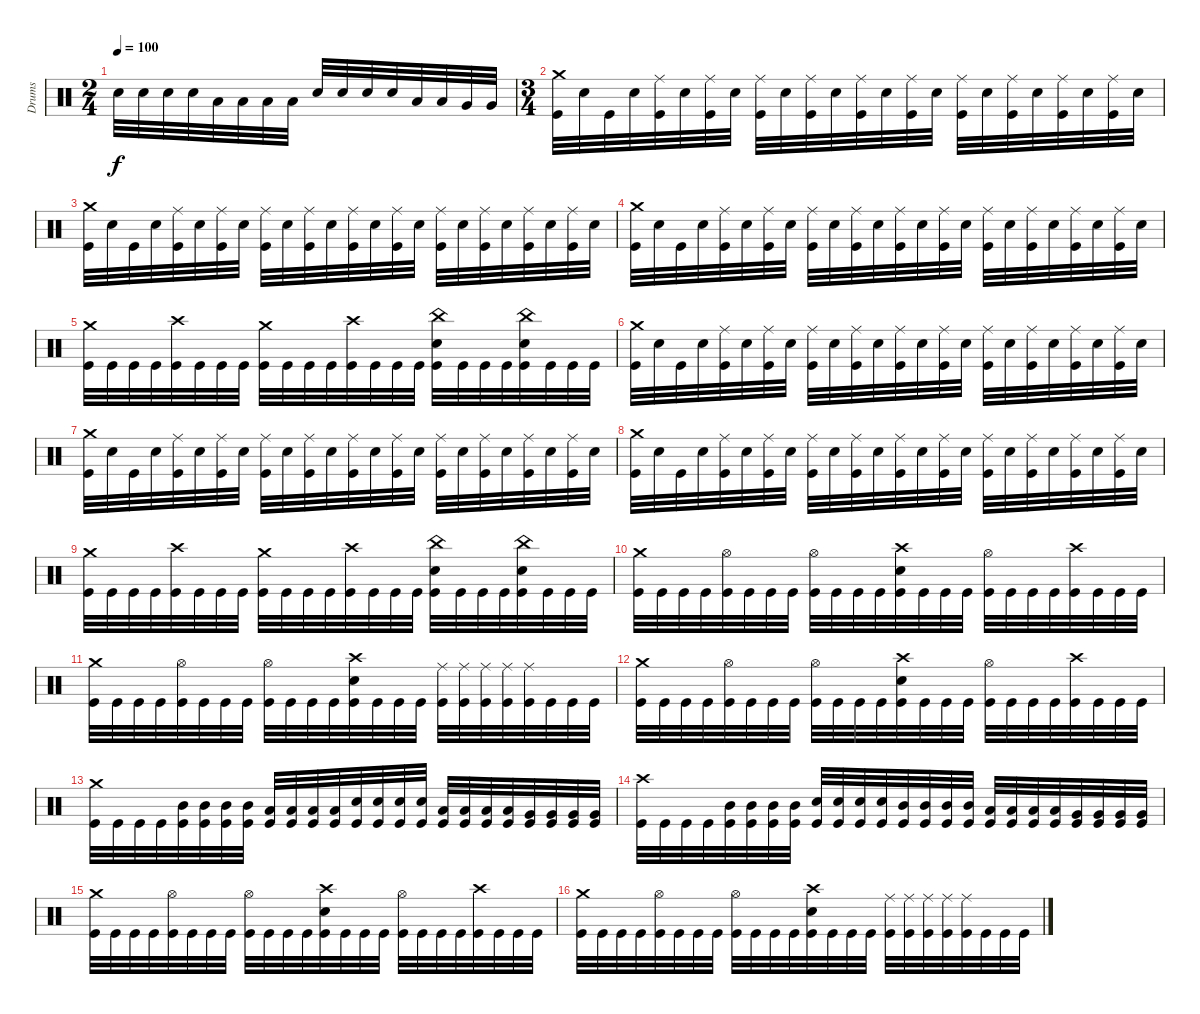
\track ("Drums" "Drums") {instrument percussion}
\staff {score}
\articulation defaults
\ts (2 4)
\tempo 100
\clef neutral
\ks c "Snare (hit) 2".32{dy f} "Snare (hit) 2".32 "Snare (hit) 2".32 "Snare (hit) 2".32 "Low Tom (hit)".32 "Low Tom (hit)".32 "Low Tom (hit)".32 "Low Tom (hit)".32 "Snare (hit) 2".32 "Snare (hit) 2".32 "Snare (hit) 2".32 "Snare (hit) 2".32 "Low Tom (hit)".32 "Low Tom (hit)".32 "Very Low Tom (hit)".32 "Very Low Tom (hit)".32
|
\ts (3 4)
("Crash medium (hit)" "Kick (hit)").32 "Snare (hit) 2".32 "Kick (hit)".32 "Snare (hit) 2".32 ("Ride (middle)" "Kick (hit)").32 "Snare (hit) 2".32 ("Ride (middle)" "Kick (hit)").32 "Snare (hit) 2".32 ("Ride (middle)" "Kick (hit)").32 "Snare (hit) 2".32 ("Ride (middle)" "Kick (hit)").32 "Snare (hit) 2".32 ("Ride (middle)" "Kick (hit)").32 "Snare (hit) 2".32 ("Ride (middle)" "Kick (hit)").32 "Snare (hit) 2".32 ("Ride (middle)" "Kick (hit)").32 "Snare (hit) 2".32 ("Ride (middle)" "Kick (hit)").32 "Snare (hit) 2".32 ("Ride (middle)" "Kick (hit)").32 "Snare (hit) 2".32 ("Ride (middle)" "Kick (hit)").32 "Snare (hit) 2".32 |
("Crash medium (hit)" "Kick (hit)").32 "Snare (hit) 2".32 "Kick (hit)".32 "Snare (hit) 2".32 ("Ride (middle)" "Kick (hit)").32 "Snare (hit) 2".32 ("Ride (middle)" "Kick (hit)").32 "Snare (hit) 2".32 ("Ride (middle)" "Kick (hit)").32 "Snare (hit) 2".32 ("Ride (middle)" "Kick (hit)").32 "Snare (hit) 2".32 ("Ride (middle)" "Kick (hit)").32 "Snare (hit) 2".32 ("Ride (middle)" "Kick (hit)").32 "Snare (hit) 2".32 ("Ride (middle)" "Kick (hit)").32 "Snare (hit) 2".32 ("Ride (middle)" "Kick (hit)").32 "Snare (hit) 2".32 ("Ride (middle)" "Kick (hit)").32 "Snare (hit) 2".32 ("Ride (middle)" "Kick (hit)").32 "Snare (hit) 2".32 |
("Crash medium (hit)" "Kick (hit)").32 "Snare (hit) 2".32 "Kick (hit)".32 "Snare (hit) 2".32 ("Ride (middle)" "Kick (hit)").32 "Snare (hit) 2".32 ("Ride (middle)" "Kick (hit)").32 "Snare (hit) 2".32 ("Ride (middle)" "Kick (hit)").32 "Snare (hit) 2".32 ("Ride (middle)" "Kick (hit)").32 "Snare (hit) 2".32 ("Ride (middle)" "Kick (hit)").32 "Snare (hit) 2".32 ("Ride (middle)" "Kick (hit)").32 "Snare (hit) 2".32 ("Ride (middle)" "Kick (hit)").32 "Snare (hit) 2".32 ("Ride (middle)" "Kick (hit)").32 "Snare (hit) 2".32 ("Ride (middle)" "Kick (hit)").32 "Snare (hit) 2".32 ("Ride (middle)" "Kick (hit)").32 "Snare (hit) 2".32 |
("Crash medium (hit)" "Kick (hit)").32 "Kick (hit)".32 "Kick (hit)".32 "Kick (hit)".32 ("Crash high (hit)" "Kick (hit)").32 "Kick (hit)".32 "Kick (hit)".32 "Kick (hit)".32 ("Crash medium (hit)" "Kick (hit)").32 "Kick (hit)".32 "Kick (hit)".32 "Kick (hit)".32 ("Crash high (hit)" "Kick (hit)").32 "Kick (hit)".32 "Kick (hit)".32 "Kick (hit)".32 ("China (hit)" "Snare (hit) 2" "Kick (hit)").32 "Kick (hit)".32 "Kick (hit)".32 "Kick (hit)".32 ("China (hit)" "Snare (hit) 2" "Kick (hit)").32 "Kick (hit)".32 "Kick (hit)".32 "Kick (hit)".32 |
("Crash medium (hit)" "Kick (hit)").32 "Snare (hit) 2".32 "Kick (hit)".32 "Snare (hit) 2".32 ("Ride (middle)" "Kick (hit)").32 "Snare (hit) 2".32 ("Ride (middle)" "Kick (hit)").32 "Snare (hit) 2".32 ("Ride (middle)" "Kick (hit)").32 "Snare (hit) 2".32 ("Ride (middle)" "Kick (hit)").32 "Snare (hit) 2".32 ("Ride (middle)" "Kick (hit)").32 "Snare (hit) 2".32 ("Ride (middle)" "Kick (hit)").32 "Snare (hit) 2".32 ("Ride (middle)" "Kick (hit)").32 "Snare (hit) 2".32 ("Ride (middle)" "Kick (hit)").32 "Snare (hit) 2".32 ("Ride (middle)" "Kick (hit)").32 "Snare (hit) 2".32 ("Ride (middle)" "Kick (hit)").32 "Snare (hit) 2".32 |
("Crash medium (hit)" "Kick (hit)").32 "Snare (hit) 2".32 "Kick (hit)".32 "Snare (hit) 2".32 ("Ride (middle)" "Kick (hit)").32 "Snare (hit) 2".32 ("Ride (middle)" "Kick (hit)").32 "Snare (hit) 2".32 ("Ride (middle)" "Kick (hit)").32 "Snare (hit) 2".32 ("Ride (middle)" "Kick (hit)").32 "Snare (hit) 2".32 ("Ride (middle)" "Kick (hit)").32 "Snare (hit) 2".32 ("Ride (middle)" "Kick (hit)").32 "Snare (hit) 2".32 ("Ride (middle)" "Kick (hit)").32 "Snare (hit) 2".32 ("Ride (middle)" "Kick (hit)").32 "Snare (hit) 2".32 ("Ride (middle)" "Kick (hit)").32 "Snare (hit) 2".32 ("Ride (middle)" "Kick (hit)").32 "Snare (hit) 2".32 |
("Crash medium (hit)" "Kick (hit)").32 "Snare (hit) 2".32 "Kick (hit)".32 "Snare (hit) 2".32 ("Ride (middle)" "Kick (hit)").32 "Snare (hit) 2".32 ("Ride (middle)" "Kick (hit)").32 "Snare (hit) 2".32 ("Ride (middle)" "Kick (hit)").32 "Snare (hit) 2".32 ("Ride (middle)" "Kick (hit)").32 "Snare (hit) 2".32 ("Ride (middle)" "Kick (hit)").32 "Snare (hit) 2".32 ("Ride (middle)" "Kick (hit)").32 "Snare (hit) 2".32 ("Ride (middle)" "Kick (hit)").32 "Snare (hit) 2".32 ("Ride (middle)" "Kick (hit)").32 "Snare (hit) 2".32 ("Ride (middle)" "Kick (hit)").32 "Snare (hit) 2".32 ("Ride (middle)" "Kick (hit)").32 "Snare (hit) 2".32 |
("Crash medium (hit)" "Kick (hit)").32 "Kick (hit)".32 "Kick (hit)".32 "Kick (hit)".32 ("Crash high (hit)" "Kick (hit)").32 "Kick (hit)".32 "Kick (hit)".32 "Kick (hit)".32 ("Crash medium (hit)" "Kick (hit)").32 "Kick (hit)".32 "Kick (hit)".32 "Kick (hit)".32 ("Crash high (hit)" "Kick (hit)").32 "Kick (hit)".32 "Kick (hit)".32 "Kick (hit)".32 ("China (hit)" "Snare (hit) 2" "Kick (hit)").32 "Kick (hit)".32 "Kick (hit)".32 "Kick (hit)".32 ("China (hit)" "Snare (hit) 2" "Kick (hit)").32 "Kick (hit)".32 "Kick (hit)".32 "Kick (hit)".32 |
("Crash medium (hit)" "Kick (hit)").32 "Kick (hit)".32 "Kick (hit)".32 "Kick (hit)".32 ("Hi-Hat (open)" "Kick (hit)").32 "Kick (hit)".32 "Kick (hit)".32 "Kick (hit)".32 ("Hi-Hat (open)" "Kick (hit)").32 "Kick (hit)".32 "Kick (hit)".32 "Kick (hit)".32 ("Crash high (hit)" "Snare (hit) 2" "Kick (hit)").32 "Kick (hit)".32 "Kick (hit)".32 "Kick (hit)".32 ("Hi-Hat (open)" "Kick (hit)").32 "Kick (hit)".32 "Kick (hit)".32 "Kick (hit)".32 ("Crash high (hit)" "Kick (hit)").32 "Kick (hit)".32 "Kick (hit)".32 "Kick (hit)".32 |
("Crash medium (hit)" "Kick (hit)").32 "Kick (hit)".32 "Kick (hit)".32 "Kick (hit)".32 ("Hi-Hat (open)" "Kick (hit)").32 "Kick (hit)".32 "Kick (hit)".32 "Kick (hit)".32 ("Hi-Hat (open)" "Kick (hit)").32 "Kick (hit)".32 "Kick (hit)".32 "Kick (hit)".32 ("Crash high (hit)" "Snare (hit) 2" "Kick (hit)").32 "Kick (hit)".32 "Kick (hit)".32 "Kick (hit)".32 ("Ride (middle)" "Kick (hit)").32 ("Ride (middle)" "Kick (hit)").32 ("Ride (middle)" "Kick (hit)").32 ("Ride (middle)" "Kick (hit)").32 ("Ride (middle)" "Kick (hit)").32 "Kick (hit)".32 "Kick (hit)".32 "Kick (hit)".32 |
("Crash medium (hit)" "Kick (hit)").32 "Kick (hit)".32 "Kick (hit)".32 "Kick (hit)".32 ("Hi-Hat (open)" "Kick (hit)").32 "Kick (hit)".32 "Kick (hit)".32 "Kick (hit)".32 ("Hi-Hat (open)" "Kick (hit)").32 "Kick (hit)".32 "Kick (hit)".32 "Kick (hit)".32 ("Crash high (hit)" "Snare (hit) 2" "Kick (hit)").32 "Kick (hit)".32 "Kick (hit)".32 "Kick (hit)".32 ("Hi-Hat (open)" "Kick (hit)").32 "Kick (hit)".32 "Kick (hit)".32 "Kick (hit)".32 ("Crash high (hit)" "Kick (hit)").32 "Kick (hit)".32 "Kick (hit)".32 "Kick (hit)".32 |
("Crash medium (hit)" "Kick (hit)").32 "Kick (hit)".32 "Kick (hit)".32 "Kick (hit)".32 ("Mid Tom (hit)" "Kick (hit)").32 ("Mid Tom (hit)" "Kick (hit)").32 ("Mid Tom (hit)" "Kick (hit)").32 ("Mid Tom (hit)" "Kick (hit)").32 ("Low Tom (hit)" "Kick (hit)").32 ("Low Tom (hit)" "Kick (hit)").32 ("Low Tom (hit)" "Kick (hit)").32 ("Low Tom (hit)" "Kick (hit)").32 ("Snare (hit) 2" "Kick (hit)").32 ("Snare (hit) 2" "Kick (hit)").32 ("Snare (hit) 2" "Kick (hit)").32 ("Snare (hit) 2" "Kick (hit)").32 ("Low Tom (hit)" "Kick (hit)").32 ("Low Tom (hit)" "Kick (hit)").32 ("Low Tom (hit)" "Kick (hit)").32 ("Low Tom (hit)" "Kick (hit)").32 ("Very Low Tom (hit)" "Kick (hit)").32 ("Very Low Tom (hit)" "Kick (hit)").32 ("Very Low Tom (hit)" "Kick (hit)").32 ("Very Low Tom (hit)" "Kick (hit)").32 |
("Crash high (hit)" "Kick (hit)").32 "Kick (hit)".32 "Kick (hit)".32 "Kick (hit)".32 ("Mid Tom (hit)" "Kick (hit)").32 ("Mid Tom (hit)" "Kick (hit)").32 ("Mid Tom (hit)" "Kick (hit)").32 ("Mid Tom (hit)" "Kick (hit)").32 ("Snare (hit) 2" "Kick (hit)").32 ("Snare (hit) 2" "Kick (hit)").32 ("Snare (hit) 2" "Kick (hit)").32 ("Snare (hit) 2" "Kick (hit)").32 ("Mid Tom (hit)" "Kick (hit)").32 ("Mid Tom (hit)" "Kick (hit)").32 ("Mid Tom (hit)" "Kick (hit)").32 ("Mid Tom (hit)" "Kick (hit)").32 ("Low Tom (hit)" "Kick (hit)").32 ("Low Tom (hit)" "Kick (hit)").32 ("Low Tom (hit)" "Kick (hit)").32 ("Low Tom (hit)" "Kick (hit)").32 ("Very Low Tom (hit)" "Kick (hit)").32 ("Very Low Tom (hit)" "Kick (hit)").32 ("Very Low Tom (hit)" "Kick (hit)").32 ("Very Low Tom (hit)" "Kick (hit)").32 |
("Crash medium (hit)" "Kick (hit)").32 "Kick (hit)".32 "Kick (hit)".32 "Kick (hit)".32 ("Hi-Hat (open)" "Kick (hit)").32 "Kick (hit)".32 "Kick (hit)".32 "Kick (hit)".32 ("Hi-Hat (open)" "Kick (hit)").32 "Kick (hit)".32 "Kick (hit)".32 "Kick (hit)".32 ("Crash high (hit)" "Snare (hit) 2" "Kick (hit)").32 "Kick (hit)".32 "Kick (hit)".32 "Kick (hit)".32 ("Hi-Hat (open)" "Kick (hit)").32 "Kick (hit)".32 "Kick (hit)".32 "Kick (hit)".32 ("Crash high (hit)" "Kick (hit)").32 "Kick (hit)".32 "Kick (hit)".32 "Kick (hit)".32 |
("Crash medium (hit)" "Kick (hit)").32 "Kick (hit)".32 "Kick (hit)".32 "Kick (hit)".32 ("Hi-Hat (open)" "Kick (hit)").32 "Kick (hit)".32 "Kick (hit)".32 "Kick (hit)".32 ("Hi-Hat (open)" "Kick (hit)").32 "Kick (hit)".32 "Kick (hit)".32 "Kick (hit)".32 ("Crash high (hit)" "Snare (hit) 2" "Kick (hit)").32 "Kick (hit)".32 "Kick (hit)".32 "Kick (hit)".32 ("Ride (middle)" "Kick (hit)").32 ("Ride (middle)" "Kick (hit)").32 ("Ride (middle)" "Kick (hit)").32 ("Ride (middle)" "Kick (hit)").32 ("Ride (middle)" "Kick (hit)").32 "Kick (hit)".32 "Kick (hit)".32 "Kick (hit)".32
